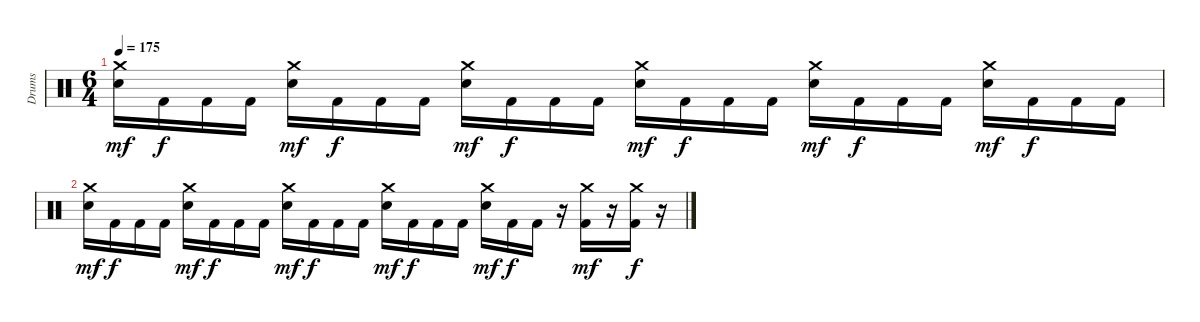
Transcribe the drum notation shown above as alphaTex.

\track ("Drums" "Drums") {instrument percussion}
\staff {score}
\articulation defaults
\ts (6 4)
\tempo 175
\clef neutral
\ks c
("Crash medium (hit)" "Electric Snare (hit)").16{dy mf} "Kick (hit) 2".16{dy f} "Kick (hit) 2".16 "Kick (hit) 2".16 ("Crash medium (hit)" "Electric Snare (hit)").16{dy mf} "Kick (hit) 2".16{dy f} "Kick (hit) 2".16 "Kick (hit) 2".16 ("Crash medium (hit)" "Electric Snare (hit)").16{dy mf} "Kick (hit) 2".16{dy f} "Kick (hit) 2".16 "Kick (hit) 2".16 ("Crash medium (hit)" "Electric Snare (hit)").16{dy mf} "Kick (hit) 2".16{dy f} "Kick (hit) 2".16 "Kick (hit) 2".16 ("Crash medium (hit)" "Electric Snare (hit)").16{dy mf} "Kick (hit) 2".16{dy f} "Kick (hit) 2".16 "Kick (hit) 2".16 ("Crash medium (hit)" "Electric Snare (hit)").16{dy mf} "Kick (hit) 2".16{dy f} "Kick (hit) 2".16 "Kick (hit) 2".16 |
("Crash medium (hit)" "Electric Snare (hit)").16{dy mf} "Kick (hit) 2".16{dy f} "Kick (hit) 2".16 "Kick (hit) 2".16 ("Crash medium (hit)" "Electric Snare (hit)").16{dy mf} "Kick (hit) 2".16{dy f} "Kick (hit) 2".16 "Kick (hit) 2".16 ("Crash medium (hit)" "Electric Snare (hit)").16{dy mf} "Kick (hit) 2".16{dy f} "Kick (hit) 2".16 "Kick (hit) 2".16 ("Crash medium (hit)" "Electric Snare (hit)").16{dy mf} "Kick (hit) 2".16{dy f} "Kick (hit) 2".16 "Kick (hit) 2".16 ("Crash medium (hit)" "Electric Snare (hit)").16{dy mf} "Kick (hit) 2".16{dy f} "Kick (hit) 2".16 r.16 ("Crash medium (hit)" "Kick (hit) 2").16{dy mf} r.16 ("Crash medium (hit)" "Kick (hit) 2").16{dy f} r.16
